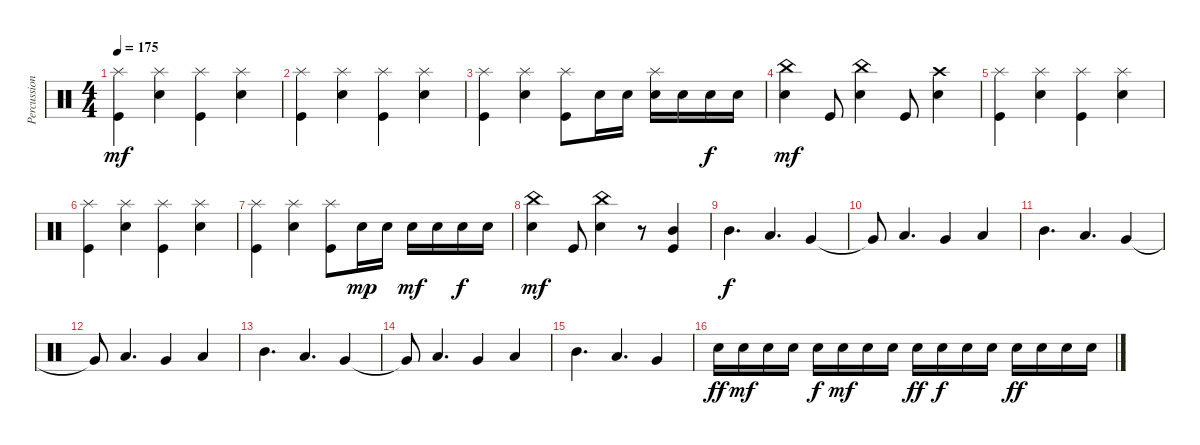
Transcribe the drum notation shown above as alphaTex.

\track ("Percussion" "Percussion") {instrument percussion}
\staff {score}
\articulation defaults
\ts (4 4)
\tempo 175
\clef neutral
\ks c
("Splash (hit)" "Kick (hit)").4{dy mf} ("Splash (hit)" "Snare (hit) 2").4 ("Splash (hit)" "Kick (hit)").4 ("Splash (hit)" "Snare (hit) 2").4 |
("Splash (hit)" "Kick (hit)").4 ("Splash (hit)" "Snare (hit) 2").4 ("Splash (hit)" "Kick (hit)").4 ("Splash (hit)" "Snare (hit) 2").4 |
("Splash (hit)" "Kick (hit)").4 ("Splash (hit)" "Snare (hit) 2").4 ("Splash (hit)" "Kick (hit)").8 "Snare (hit) 2".16 "Snare (hit) 2".16 ("Splash (hit)" "Snare (hit) 2").16 "Snare (hit) 2".16 "Snare (hit) 2".16{dy f} "Snare (hit) 2".16 |
("China (hit)" "Snare (hit) 2").4{dy mf} "Kick (hit)".8 ("China (hit)" "Snare (hit) 2").4 "Kick (hit)".8 ("Crash high (hit)" "Snare (hit) 2").4 |
("Splash (hit)" "Kick (hit)").4 ("Splash (hit)" "Snare (hit) 2").4 ("Splash (hit)" "Kick (hit)").4 ("Splash (hit)" "Snare (hit) 2").4 |
("Splash (hit)" "Kick (hit)").4 ("Splash (hit)" "Snare (hit) 2").4 ("Splash (hit)" "Kick (hit)").4 ("Splash (hit)" "Snare (hit) 2").4 |
("Splash (hit)" "Kick (hit)").4 ("Splash (hit)" "Snare (hit) 2").4 ("Splash (hit)" "Kick (hit)").8 "Snare (hit) 2".16{dy mp} "Snare (hit) 2".16 "Snare (hit) 2".16{dy mf} "Snare (hit) 2".16 "Snare (hit) 2".16{dy f} "Snare (hit) 2".16 |
("China (hit)" "Snare (hit) 2").4{dy mf} "Kick (hit)".8 ("China (hit)" "Snare (hit) 2").4 r.8 ("Mid Tom (hit)" "Kick (hit)").4 |
"Mid Tom (hit)".4{d dy f} "Low Tom (hit)".4{d} "Very Low Tom (hit)".4 |
"Very Low Tom (hit)"{t}.8 "Low Floor Tom (hit)".4{d} "Very Low Tom (hit)".4 "Low Tom (hit)".4 |
"Mid Tom (hit)".4{d} "Low Tom (hit)".4{d} "Very Low Tom (hit)".4 |
"Very Low Tom (hit)"{t}.8 "Low Floor Tom (hit)".4{d} "Very Low Tom (hit)".4 "Low Tom (hit)".4 |
"Mid Tom (hit)".4{d} "Low Tom (hit)".4{d} "Very Low Tom (hit)".4 |
"Very Low Tom (hit)"{t}.8 "Low Floor Tom (hit)".4{d} "Very Low Tom (hit)".4 "Low Tom (hit)".4 |
"Mid Tom (hit)".4{d} "Low Tom (hit)".4{d} "Very Low Tom (hit)".4 |
"Snare (hit) 2".16{dy ff} "Snare (hit) 2".16{dy mf} "Snare (hit) 2".16 "Snare (hit) 2".16 "Snare (hit) 2".16{dy f} "Snare (hit) 2".16{dy mf} "Snare (hit) 2".16 "Snare (hit) 2".16 "Snare (hit) 2".16{dy ff} "Snare (hit) 2".16{dy f} "Snare (hit) 2".16 "Snare (hit) 2".16 "Snare (hit) 2".16{dy ff} "Snare (hit) 2".16 "Snare (hit) 2".16 "Snare (hit) 2".16
